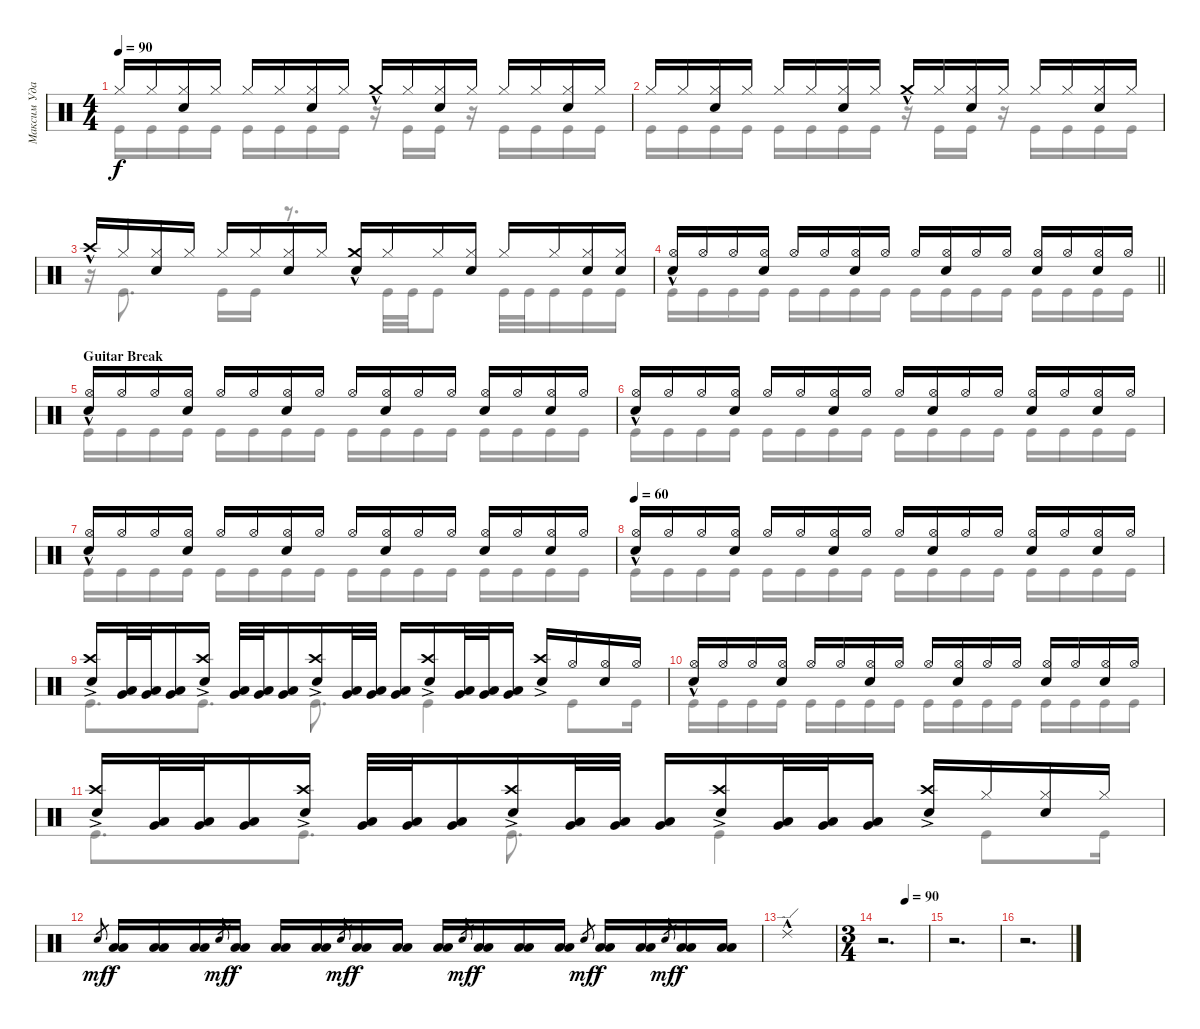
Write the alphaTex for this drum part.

\track ("Максим Удалов" "Максим Уда") {instrument percussion}
\staff {score}
\articulation defaults
\voice
\ts (4 4)
\tempo 90
\clef neutral
\ks c "Hi-Hat (closed)".16{dy f} "Hi-Hat (closed)".16
("Hi-Hat (closed)" "Snare (hit) 2").16 "Hi-Hat (closed)".16 "Hi-Hat (closed)".16 "Hi-Hat (closed)".16 ("Hi-Hat (closed)" "Snare (hit) 2").16 "Hi-Hat (closed)".16 "Crash medium (hit)"{hac}.16 "Hi-Hat (closed)".16 ("Hi-Hat (closed)" "Snare (hit) 2").16 "Hi-Hat (closed)".16 "Hi-Hat (closed)".16 "Hi-Hat (closed)".16 ("Hi-Hat (closed)" "Snare (hit) 2").16 "Hi-Hat (closed)".16 |
"Hi-Hat (closed)".16 "Hi-Hat (closed)".16 ("Hi-Hat (closed)" "Snare (hit) 2").16 "Hi-Hat (closed)".16 "Hi-Hat (closed)".16 "Hi-Hat (closed)".16 ("Hi-Hat (closed)" "Snare (hit) 2").16 "Hi-Hat (closed)".16 "Crash medium (hit)"{hac}.16 "Hi-Hat (closed)".16 ("Hi-Hat (closed)" "Snare (hit) 2").16 "Hi-Hat (closed)".16 "Hi-Hat (closed)".16 "Hi-Hat (closed)".16 ("Hi-Hat (closed)" "Snare (hit) 2").16 "Hi-Hat (closed)".16 |
"Crash high (hit)"{hac}.16 "Hi-Hat (closed)".16 ("Hi-Hat (closed)" "Snare (hit) 2").16 "Hi-Hat (closed)".16 "Hi-Hat (closed)".16 "Hi-Hat (closed)".16 ("Hi-Hat (closed)" "Snare (hit) 2").16 "Hi-Hat (closed)".16 ("Crash medium (hit)"{hac} "Snare (hit) 2").16 "Hi-Hat (closed)".16 "Hi-Hat (closed)".16 ("Hi-Hat (closed)" "Snare (hit) 2").16 "Hi-Hat (closed)".16 "Hi-Hat (closed)".16 ("Hi-Hat (closed)" "Snare (hit) 2").16 ("Hi-Hat (closed)" "Snare (hit) 2").16 |
\barLineRight lightlight
("Snare (hit) 2" "Hi-Hat (open)"{hac}).16 "Hi-Hat (open)".16 "Hi-Hat (open)".16 ("Hi-Hat (open)" "Snare (hit) 2").16 "Hi-Hat (open)".16 "Hi-Hat (open)".16 ("Hi-Hat (open)" "Snare (hit) 2").16 "Hi-Hat (open)".16 "Hi-Hat (open)".16 ("Hi-Hat (open)" "Snare (hit) 2").16 "Hi-Hat (open)".16 "Hi-Hat (open)".16 ("Hi-Hat (open)" "Snare (hit) 2").16 "Hi-Hat (open)".16 ("Hi-Hat (open)" "Snare (hit) 2").16 "Hi-Hat (open)".16 |
\section ("" "Guitar Break")
("Snare (hit) 2" "Hi-Hat (open)"{hac}).16 "Hi-Hat (open)".16 "Hi-Hat (open)".16 ("Hi-Hat (open)" "Snare (hit) 2").16 "Hi-Hat (open)".16 "Hi-Hat (open)".16 ("Hi-Hat (open)" "Snare (hit) 2").16 "Hi-Hat (open)".16 "Hi-Hat (open)".16 ("Hi-Hat (open)" "Snare (hit) 2").16 "Hi-Hat (open)".16 "Hi-Hat (open)".16 ("Hi-Hat (open)" "Snare (hit) 2").16 "Hi-Hat (open)".16 ("Hi-Hat (open)" "Snare (hit) 2").16 "Hi-Hat (open)".16 |
("Snare (hit) 2" "Hi-Hat (open)"{hac}).16 "Hi-Hat (open)".16 "Hi-Hat (open)".16 ("Hi-Hat (open)" "Snare (hit) 2").16 "Hi-Hat (open)".16 "Hi-Hat (open)".16 ("Hi-Hat (open)" "Snare (hit) 2").16 "Hi-Hat (open)".16 "Hi-Hat (open)".16 ("Hi-Hat (open)" "Snare (hit) 2").16 "Hi-Hat (open)".16 "Hi-Hat (open)".16 ("Hi-Hat (open)" "Snare (hit) 2").16 "Hi-Hat (open)".16 ("Hi-Hat (open)" "Snare (hit) 2").16 "Hi-Hat (open)".16 |
("Snare (hit) 2" "Hi-Hat (open)"{hac}).16 "Hi-Hat (open)".16 "Hi-Hat (open)".16 ("Hi-Hat (open)" "Snare (hit) 2").16 "Hi-Hat (open)".16 "Hi-Hat (open)".16 ("Hi-Hat (open)" "Snare (hit) 2").16 "Hi-Hat (open)".16 "Hi-Hat (open)".16 ("Hi-Hat (open)" "Snare (hit) 2").16 "Hi-Hat (open)".16 "Hi-Hat (open)".16 ("Hi-Hat (open)" "Snare (hit) 2").16 "Hi-Hat (open)".16 ("Hi-Hat (open)" "Snare (hit) 2").16 "Hi-Hat (open)".16 |
\tempo 60
("Snare (hit) 2" "Hi-Hat (open)"{hac}).16 "Hi-Hat (open)".16 "Hi-Hat (open)".16 ("Hi-Hat (open)" "Snare (hit) 2").16 "Hi-Hat (open)".16 "Hi-Hat (open)".16 ("Hi-Hat (open)" "Snare (hit) 2").16 "Hi-Hat (open)".16 "Hi-Hat (open)".16 ("Hi-Hat (open)" "Snare (hit) 2").16 "Hi-Hat (open)".16 "Hi-Hat (open)".16 ("Hi-Hat (open)" "Snare (hit) 2").16 "Hi-Hat (open)".16 ("Hi-Hat (open)" "Snare (hit) 2").16 "Hi-Hat (open)".16 |
("Crash high (hit)"{ac} "Snare (hit) 2").16 ("Low Tom (hit)" "Very Low Tom (hit)").32 ("Low Tom (hit)" "Very Low Tom (hit)").32 ("Low Tom (hit)" "Very Low Tom (hit)").16 ("Crash high (hit)"{ac} "Snare (hit) 2").16 ("Low Tom (hit)" "Very Low Tom (hit)").32 ("Low Tom (hit)" "Very Low Tom (hit)").32 ("Low Tom (hit)" "Very Low Tom (hit)").16 ("Crash high (hit)"{ac} "Snare (hit) 2").16 ("Low Tom (hit)" "Very Low Tom (hit)").32 ("Low Tom (hit)" "Very Low Tom (hit)").32 ("Low Tom (hit)" "Very Low Tom (hit)").16 ("Crash high (hit)"{ac} "Snare (hit) 2").16 ("Low Tom (hit)" "Very Low Tom (hit)").32 ("Low Tom (hit)" "Very Low Tom (hit)").32 ("Low Tom (hit)" "Very Low Tom (hit)").16 ("Snare (hit) 2" "Crash high (hit)"{ac}).16 "Hi-Hat (open)".16 ("Hi-Hat (open)" "Snare (hit) 2").16 "Hi-Hat (open)".16 |
("Snare (hit) 2" "Hi-Hat (open)"{hac}).16 "Hi-Hat (open)".16 "Hi-Hat (open)".16 ("Hi-Hat (open)" "Snare (hit) 2").16 "Hi-Hat (open)".16 "Hi-Hat (open)".16 ("Hi-Hat (open)" "Snare (hit) 2").16 "Hi-Hat (open)".16 "Hi-Hat (open)".16 ("Hi-Hat (open)" "Snare (hit) 2").16 "Hi-Hat (open)".16 "Hi-Hat (open)".16 ("Hi-Hat (open)" "Snare (hit) 2").16 "Hi-Hat (open)".16 ("Hi-Hat (open)" "Snare (hit) 2").16 "Hi-Hat (open)".16 |
("Crash high (hit)"{ac} "Snare (hit) 2").16 ("Low Tom (hit)" "Very Low Tom (hit)").32 ("Low Tom (hit)" "Very Low Tom (hit)").32 ("Low Tom (hit)" "Very Low Tom (hit)").16 ("Crash high (hit)"{ac} "Snare (hit) 2").16 ("Low Tom (hit)" "Very Low Tom (hit)").32 ("Low Tom (hit)" "Very Low Tom (hit)").32 ("Low Tom (hit)" "Very Low Tom (hit)").16 ("Crash high (hit)"{ac} "Snare (hit) 2").16 ("Low Tom (hit)" "Very Low Tom (hit)").32 ("Low Tom (hit)" "Very Low Tom (hit)").32 ("Low Tom (hit)" "Very Low Tom (hit)").16 ("Crash high (hit)"{ac} "Snare (hit) 2").16 ("Low Tom (hit)" "Very Low Tom (hit)").32 ("Low Tom (hit)" "Very Low Tom (hit)").32 ("Low Tom (hit)" "Very Low Tom (hit)").16 ("Snare (hit) 2" "Crash high (hit)"{ac}).16 "Hi-Hat (closed)".16 ("Hi-Hat (closed)" "Snare (hit) 2").16 "Hi-Hat (closed)".16 |
"Snare (hit)".8{gr dy mf} ("Low Floor Tom (hit)" "Low Tom (hit)").16{dy f} ("Low Tom (hit)" "Low Floor Tom (hit)").16 ("Low Tom (hit)" "Low Floor Tom (hit)").16 "Snare (hit)".8{gr dy mf} ("Low Floor Tom (hit)" "Low Tom (hit)").16{dy f} ("Low Tom (hit)" "Low Floor Tom (hit)").16 ("Low Tom (hit)" "Low Floor Tom (hit)").16 "Snare (hit)".8{gr dy mf} ("Low Floor Tom (hit)" "Low Tom (hit)").16{dy f} ("Low Tom (hit)" "Low Floor Tom (hit)").16 ("Low Tom (hit)" "Low Floor Tom (hit)").16 "Snare (hit)".8{gr dy mf} ("Low Floor Tom (hit)" "Low Tom (hit)").16{dy f} ("Low Tom (hit)" "Low Floor Tom (hit)").16 ("Low Tom (hit)" "Low Floor Tom (hit)").16 "Snare (hit)".8{gr dy mf} ("Low Floor Tom (hit)" "Low Tom (hit)").16{dy f} ("Low Tom (hit)" "Low Floor Tom (hit)").16 "Snare (hit)".8{gr dy mf} ("Low Floor Tom (hit)" "Low Tom (hit)").16{dy f} ("Low Floor Tom (hit)" "Low Tom (hit)").16 |
"Ride (edge) 2"{hac}.1 |
\ts (3 4)
\tempo (90 0.5)
r.2{d} |
r.2{d} |
r.2{d}
\voice
\clef neutral
\ottava regular
\simile none
\ks c "Kick (hit)".16{dy f} "Kick (hit)".16 "Kick (hit)".16 "Kick (hit)".16 "Kick (hit)".16 "Kick (hit)".16 "Kick (hit)".16 "Kick (hit)".16
r.16 "Kick (hit)".16 "Kick (hit)".16 r.16 "Kick (hit)".16 "Kick (hit)".16 "Kick (hit)".16 "Kick (hit)".16 |
"Kick (hit)".16 "Kick (hit)".16 "Kick (hit)".16 "Kick (hit)".16 "Kick (hit)".16 "Kick (hit)".16 "Kick (hit)".16 "Kick (hit)".16 r.16 "Kick (hit)".16 "Kick (hit)".16 r.16 "Kick (hit)".16 "Kick (hit)".16 "Kick (hit)".16 "Kick (hit)".16 |
r.16 "Kick (hit)".8{d} "Kick (hit)".16 "Kick (hit)".16 r.8{d} "Kick (hit)".32 "Kick (hit)".32 "Kick (hit)".8 "Kick (hit)".32 "Kick (hit)".32 "Kick (hit)".16 "Kick (hit)".16 "Kick (hit)".16 |
\barLineRight lightlight "Kick (hit)".16 "Kick (hit)".16 "Kick (hit)".16 "Kick (hit)".16 "Kick (hit)".16 "Kick (hit)".16 "Kick (hit)".16 "Kick (hit)".16 "Kick (hit)".16 "Kick (hit)".16 "Kick (hit)".16 "Kick (hit)".16 "Kick (hit)".16 "Kick (hit)".16 "Kick (hit)".16 "Kick (hit)".16
|
"Kick (hit)".16 "Kick (hit)".16 "Kick (hit)".16 "Kick (hit)".16 "Kick (hit)".16 "Kick (hit)".16 "Kick (hit)".16 "Kick (hit)".16 "Kick (hit)".16 "Kick (hit)".16 "Kick (hit)".16{volume 15} "Kick (hit)".16 "Kick (hit)".16 "Kick (hit)".16 "Kick (hit)".16 "Kick (hit)".16 |
"Kick (hit)".16 "Kick (hit)".16 "Kick (hit)".16 "Kick (hit)".16 "Kick (hit)".16 "Kick (hit)".16 "Kick (hit)".16 "Kick (hit)".16 "Kick (hit)".16 "Kick (hit)".16 "Kick (hit)".16 "Kick (hit)".16 "Kick (hit)".16 "Kick (hit)".16 "Kick (hit)".16 "Kick (hit)".16 |
"Kick (hit)".16 "Kick (hit)".16 "Kick (hit)".16 "Kick (hit)".16 "Kick (hit)".16 "Kick (hit)".16 "Kick (hit)".16 "Kick (hit)".16 "Kick (hit)".16 "Kick (hit)".16 "Kick (hit)".16 "Kick (hit)".16 "Kick (hit)".16 "Kick (hit)".16 "Kick (hit)".16 "Kick (hit)".16 |
"Kick (hit)".16 "Kick (hit)".16 "Kick (hit)".16 "Kick (hit)".16 "Kick (hit)".16 "Kick (hit)".16 "Kick (hit)".16 "Kick (hit)".16 "Kick (hit)".16 "Kick (hit)".16 "Kick (hit)".16 "Kick (hit)".16 "Kick (hit)".16 "Kick (hit)".16 "Kick (hit)".16 "Kick (hit)".16 |
"Kick (hit)".8{d} "Kick (hit)".8{d} "Kick (hit)".8{d} "Kick (hit)".4 "Kick (hit)".8 "Kick (hit)".16 |
"Kick (hit)".16 "Kick (hit)".16 "Kick (hit)".16 "Kick (hit)".16 "Kick (hit)".16 "Kick (hit)".16 "Kick (hit)".16 "Kick (hit)".16 "Kick (hit)".16 "Kick (hit)".16 "Kick (hit)".16 "Kick (hit)".16 "Kick (hit)".16 "Kick (hit)".16 "Kick (hit)".16 "Kick (hit)".16 |
"Kick (hit)".8{d} "Kick (hit)".8{d} "Kick (hit)".8{d} "Kick (hit)".4 "Kick (hit)".8 "Kick (hit)".16 |
|
|
|
|
